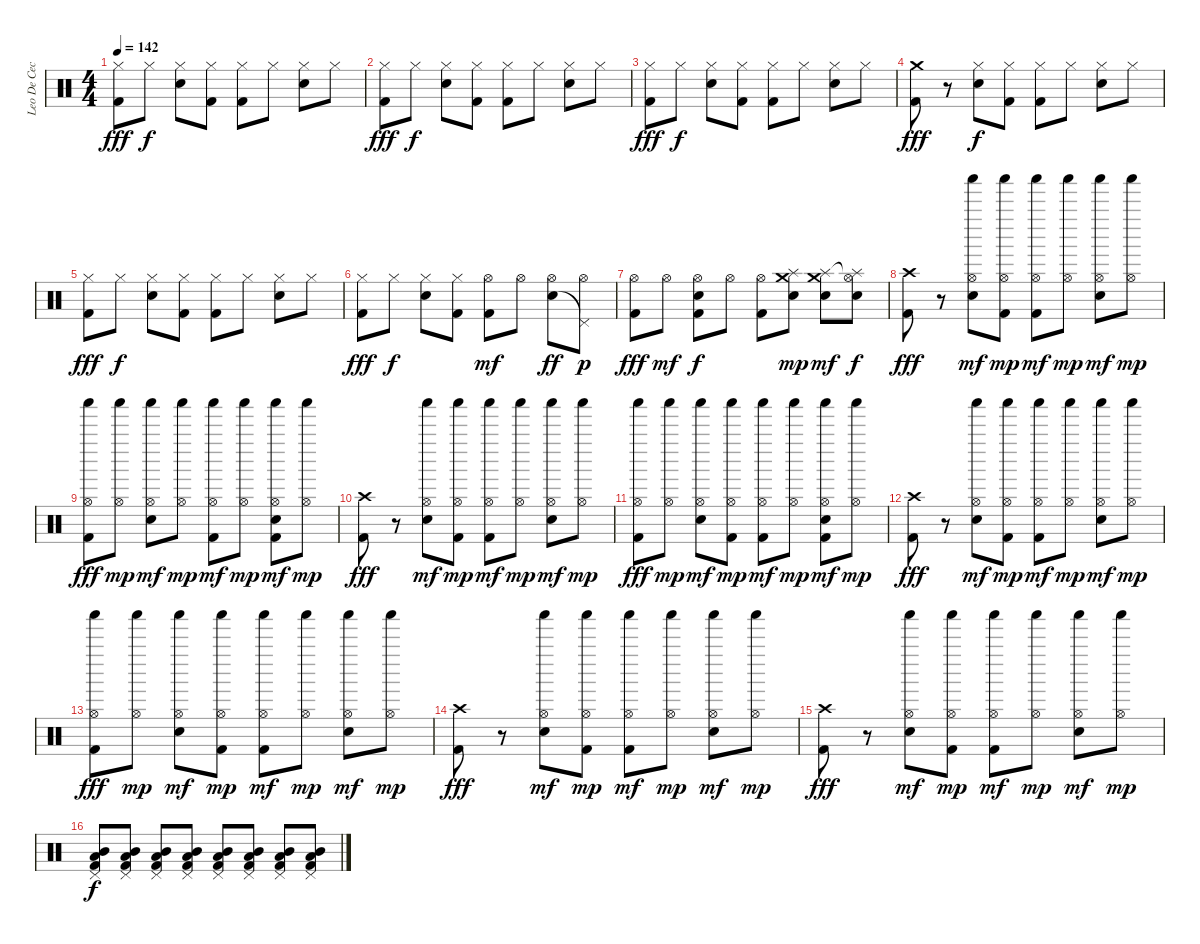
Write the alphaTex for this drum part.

\track ("Leo De Cecco" "Leo De Cec") {instrument percussion}
\staff {score}
\articulation defaults
\ts (4 4)
\tempo 142
\clef neutral
\ks c
("Hi-Hat (closed)" "Kick (hit) 2").8{dy fff} "Hi-Hat (closed)".8{dy f} ("Hi-Hat (closed)" "Electric Snare (hit)").8 ("Hi-Hat (closed)" "Kick (hit) 2").8 ("Hi-Hat (closed)" "Kick (hit) 2").8 "Hi-Hat (closed)".8 ("Hi-Hat (closed)" "Electric Snare (hit)").8 "Hi-Hat (closed)".8 |
("Hi-Hat (closed)" "Kick (hit) 2").8{dy fff} "Hi-Hat (closed)".8{dy f} ("Hi-Hat (closed)" "Electric Snare (hit)").8 ("Hi-Hat (closed)" "Kick (hit) 2").8 ("Hi-Hat (closed)" "Kick (hit) 2").8 "Hi-Hat (closed)".8 ("Hi-Hat (closed)" "Electric Snare (hit)").8 "Hi-Hat (closed)".8 |
("Hi-Hat (closed)" "Kick (hit) 2").8{dy fff} "Hi-Hat (closed)".8{dy f} ("Hi-Hat (closed)" "Electric Snare (hit)").8 ("Hi-Hat (closed)" "Kick (hit) 2").8 ("Hi-Hat (closed)" "Kick (hit) 2").8 "Hi-Hat (closed)".8 ("Hi-Hat (closed)" "Electric Snare (hit)").8 "Hi-Hat (closed)".8 |
("Crash medium (hit)" "Kick (hit) 2").8{dy fff} r.8 ("Hi-Hat (closed)" "Electric Snare (hit)").8{dy f} ("Hi-Hat (closed)" "Kick (hit) 2").8 ("Hi-Hat (closed)" "Kick (hit) 2").8 "Hi-Hat (closed)".8 ("Hi-Hat (closed)" "Electric Snare (hit)").8 "Hi-Hat (closed)".8 |
("Hi-Hat (closed)" "Kick (hit) 2").8{dy fff} "Hi-Hat (closed)".8{dy f} ("Hi-Hat (closed)" "Electric Snare (hit)").8 ("Hi-Hat (closed)" "Kick (hit) 2").8 ("Hi-Hat (closed)" "Kick (hit) 2").8 "Hi-Hat (closed)".8 ("Hi-Hat (closed)" "Electric Snare (hit)").8 "Hi-Hat (closed)".8 |
("Hi-Hat (closed)" "Kick (hit) 2").8{dy fff} "Hi-Hat (closed)".8{dy f} ("Hi-Hat (closed)" "Electric Snare (hit)").8 ("Hi-Hat (closed)" "Kick (hit) 2").8 ("Hi-Hat (open)" "Kick (hit) 2").8{dy mf} "Hi-Hat (open)".8 ("Hi-Hat (open)" "Electric Snare (hit)").8{dy ff} ("Hi-Hat (open)" "Pedal Hi-Hat (hit)"{t}).8{dy p} |
("Hi-Hat (open)" "Kick (hit) 2").8{dy fff} "Hi-Hat (open)".8{dy mf} ("Hi-Hat (open)" "Electric Snare (hit)" "Kick (hit) 2").8{dy f} "Hi-Hat (open)".8 ("Hi-Hat (open)" "Kick (hit) 2").8 ("Crash medium (hit)" "Splash (hit)" "Electric Snare (hit)").8{dy mp} ("Crash medium (hit)" "Splash (hit)" "Electric Snare (hit)").8{dy mf} ("Splash (hit)" "Hi-Hat (open)"{t} "Electric Snare (hit)").8{dy f} |
("Crash high (hit)" "Kick (hit) 2").8{dy fff} r.8 ("Shaker (hit)" "Hi-Hat (open)" "Electric Snare (hit)").8{dy mf} ("Shaker (hit)" "Hi-Hat (open)" "Kick (hit) 2").8{dy mp} ("Shaker (hit)" "Hi-Hat (open)" "Kick (hit) 2").8{dy mf} ("Shaker (hit)" "Hi-Hat (open)").8{dy mp} ("Shaker (hit)" "Hi-Hat (open)" "Electric Snare (hit)").8{dy mf} ("Shaker (hit)" "Hi-Hat (open)").8{dy mp} |
("Shaker (hit)" "Hi-Hat (open)" "Kick (hit) 2").8{dy fff} ("Shaker (hit)" "Hi-Hat (open)").8{dy mp} ("Shaker (hit)" "Hi-Hat (open)" "Electric Snare (hit)").8{dy mf} ("Shaker (hit)" "Hi-Hat (open)").8{dy mp} ("Shaker (hit)" "Hi-Hat (open)" "Kick (hit) 2").8{dy mf} ("Shaker (hit)" "Hi-Hat (open)").8{dy mp} ("Shaker (hit)" "Hi-Hat (open)" "Electric Snare (hit)" "Kick (hit) 2").8{dy mf} ("Shaker (hit)" "Hi-Hat (open)").8{dy mp} |
("Crash high (hit)" "Kick (hit) 2").8{dy fff} r.8 ("Shaker (hit)" "Hi-Hat (open)" "Electric Snare (hit)").8{dy mf} ("Shaker (hit)" "Hi-Hat (open)" "Kick (hit) 2").8{dy mp} ("Shaker (hit)" "Hi-Hat (open)" "Kick (hit) 2").8{dy mf} ("Shaker (hit)" "Hi-Hat (open)").8{dy mp} ("Shaker (hit)" "Hi-Hat (open)" "Electric Snare (hit)").8{dy mf} ("Shaker (hit)" "Hi-Hat (open)").8{dy mp} |
("Shaker (hit)" "Hi-Hat (open)" "Kick (hit) 2").8{dy fff} ("Shaker (hit)" "Hi-Hat (open)").8{dy mp} ("Shaker (hit)" "Hi-Hat (open)" "Electric Snare (hit)").8{dy mf} ("Shaker (hit)" "Hi-Hat (open)" "Kick (hit) 2").8{dy mp} ("Shaker (hit)" "Hi-Hat (open)" "Kick (hit) 2").8{dy mf} ("Shaker (hit)" "Hi-Hat (open)").8{dy mp} ("Shaker (hit)" "Hi-Hat (open)" "Electric Snare (hit)" "Kick (hit) 2").8{dy mf} ("Shaker (hit)" "Hi-Hat (open)").8{dy mp} |
("Crash high (hit)" "Kick (hit) 2").8{dy fff} r.8 ("Shaker (hit)" "Hi-Hat (open)" "Electric Snare (hit)").8{dy mf} ("Shaker (hit)" "Hi-Hat (open)" "Kick (hit) 2").8{dy mp} ("Shaker (hit)" "Hi-Hat (open)" "Kick (hit) 2").8{dy mf} ("Shaker (hit)" "Hi-Hat (open)").8{dy mp} ("Shaker (hit)" "Hi-Hat (open)" "Electric Snare (hit)").8{dy mf} ("Shaker (hit)" "Hi-Hat (open)").8{dy mp} |
("Shaker (hit)" "Hi-Hat (open)" "Kick (hit) 2").8{dy fff} ("Shaker (hit)" "Hi-Hat (open)").8{dy mp} ("Shaker (hit)" "Hi-Hat (open)" "Electric Snare (hit)").8{dy mf} ("Shaker (hit)" "Hi-Hat (open)" "Kick (hit) 2").8{dy mp} ("Shaker (hit)" "Hi-Hat (open)" "Kick (hit) 2").8{dy mf} ("Shaker (hit)" "Hi-Hat (open)").8{dy mp} ("Shaker (hit)" "Hi-Hat (open)" "Electric Snare (hit)").8{dy mf} ("Shaker (hit)" "Hi-Hat (open)").8{dy mp} |
("Crash high (hit)" "Kick (hit) 2").8{dy fff} r.8 ("Shaker (hit)" "Hi-Hat (open)" "Electric Snare (hit)").8{dy mf} ("Shaker (hit)" "Hi-Hat (open)" "Kick (hit) 2").8{dy mp} ("Shaker (hit)" "Hi-Hat (open)" "Kick (hit) 2").8{dy mf} ("Shaker (hit)" "Hi-Hat (open)").8{dy mp} ("Shaker (hit)" "Hi-Hat (open)" "Electric Snare (hit)").8{dy mf} ("Shaker (hit)" "Hi-Hat (open)").8{dy mp} |
("Crash high (hit)" "Kick (hit) 2").8{dy fff} r.8 ("Shaker (hit)" "Hi-Hat (open)" "Electric Snare (hit)").8{dy mf} ("Shaker (hit)" "Hi-Hat (open)" "Kick (hit) 2").8{dy mp} ("Shaker (hit)" "Hi-Hat (open)" "Kick (hit) 2").8{dy mf} ("Shaker (hit)" "Hi-Hat (open)").8{dy mp} ("Shaker (hit)" "Hi-Hat (open)" "Electric Snare (hit)").8{dy mf} ("Shaker (hit)" "Hi-Hat (open)").8{dy mp} |
("Low Tom (hit)" "Mid Tom (hit)" "Pedal Hi-Hat (hit)" "Kick (hit) 2").8{dy f} ("Low Tom (hit)" "Mid Tom (hit)" "Pedal Hi-Hat (hit)" "Kick (hit) 2").8 ("Low Tom (hit)" "Mid Tom (hit)" "Pedal Hi-Hat (hit)" "Kick (hit) 2").8 ("Low Tom (hit)" "Mid Tom (hit)" "Pedal Hi-Hat (hit)" "Kick (hit) 2").8 ("Low Tom (hit)" "Mid Tom (hit)" "Pedal Hi-Hat (hit)" "Kick (hit) 2").8 ("Low Tom (hit)" "Mid Tom (hit)" "Pedal Hi-Hat (hit)" "Kick (hit) 2").8 ("Low Tom (hit)" "Mid Tom (hit)" "Pedal Hi-Hat (hit)" "Kick (hit) 2").8 ("Low Tom (hit)" "Mid Tom (hit)" "Pedal Hi-Hat (hit)" "Kick (hit) 2").8
